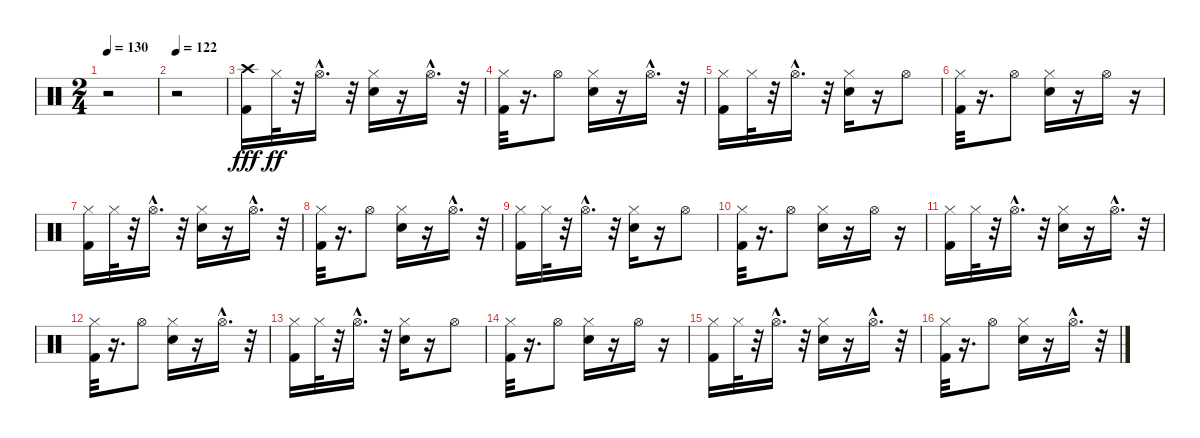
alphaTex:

\track "" {instrument percussion}
\staff {score}
\articulation defaults
\ts (2 4)
\tempo 130
\clef neutral
\ks c
r.2{dy fff} |
\tempo 122
r.2 |
("Kick (hit) 2" "Crash high (hit)").16 "Hi-Hat (closed)".32{dy ff} r.32 "Hi-Hat (open)"{hac}.16{d} r.32 ("Snare (hit) 2" "Hi-Hat (closed)").16 r.16 "Hi-Hat (open)"{hac}.16{d} r.32 |
("Kick (hit) 2" "Hi-Hat (closed)").32 r.16{d} "Hi-Hat (open)".8 ("Snare (hit) 2" "Hi-Hat (closed)").16 r.16 "Hi-Hat (open)"{hac}.16{d} r.32 |
("Kick (hit) 2" "Hi-Hat (closed)").16 "Hi-Hat (closed)".32 r.32 "Hi-Hat (open)"{hac}.16{d} r.32 ("Snare (hit) 2" "Hi-Hat (closed)").16 r.16 "Hi-Hat (open)".8 |
("Kick (hit) 2" "Hi-Hat (closed)").32 r.16{d} "Hi-Hat (open)".8 ("Snare (hit) 2" "Hi-Hat (closed)").16 r.16 "Hi-Hat (open)".16 r.16 |
("Kick (hit) 2" "Hi-Hat (closed)").16 "Hi-Hat (closed)".32 r.32 "Hi-Hat (open)"{hac}.16{d} r.32 ("Snare (hit) 2" "Hi-Hat (closed)").16 r.16 "Hi-Hat (open)"{hac}.16{d} r.32 |
("Kick (hit) 2" "Hi-Hat (closed)").32 r.16{d} "Hi-Hat (open)".8 ("Snare (hit) 2" "Hi-Hat (closed)").16 r.16 "Hi-Hat (open)"{hac}.16{d} r.32 |
("Kick (hit) 2" "Hi-Hat (closed)").16 "Hi-Hat (closed)".32 r.32 "Hi-Hat (open)"{hac}.16{d} r.32 ("Snare (hit) 2" "Hi-Hat (closed)").16 r.16 "Hi-Hat (open)".8 |
("Kick (hit) 2" "Hi-Hat (closed)").32 r.16{d} "Hi-Hat (open)".8 ("Snare (hit) 2" "Hi-Hat (closed)").16 r.16 "Hi-Hat (open)".16 r.16 |
("Kick (hit) 2" "Hi-Hat (closed)").16 "Hi-Hat (closed)".32 r.32 "Hi-Hat (open)"{hac}.16{d} r.32 ("Snare (hit) 2" "Hi-Hat (closed)").16 r.16 "Hi-Hat (open)"{hac}.16{d} r.32 |
("Kick (hit) 2" "Hi-Hat (closed)").32 r.16{d} "Hi-Hat (open)".8 ("Snare (hit) 2" "Hi-Hat (closed)").16 r.16 "Hi-Hat (open)"{hac}.16{d} r.32 |
("Kick (hit) 2" "Hi-Hat (closed)").16 "Hi-Hat (closed)".32 r.32 "Hi-Hat (open)"{hac}.16{d} r.32 ("Snare (hit) 2" "Hi-Hat (closed)").16 r.16 "Hi-Hat (open)".8 |
("Kick (hit) 2" "Hi-Hat (closed)").32 r.16{d} "Hi-Hat (open)".8 ("Snare (hit) 2" "Hi-Hat (closed)").16 r.16 "Hi-Hat (open)".16 r.16 |
("Kick (hit) 2" "Hi-Hat (closed)").16 "Hi-Hat (closed)".32 r.32 "Hi-Hat (open)"{hac}.16{d} r.32 ("Snare (hit) 2" "Hi-Hat (closed)").16 r.16 "Hi-Hat (open)"{hac}.16{d} r.32 |
("Kick (hit) 2" "Hi-Hat (closed)").32 r.16{d} "Hi-Hat (open)".8 ("Snare (hit) 2" "Hi-Hat (closed)").16 r.16 "Hi-Hat (open)"{hac}.16{d} r.32
